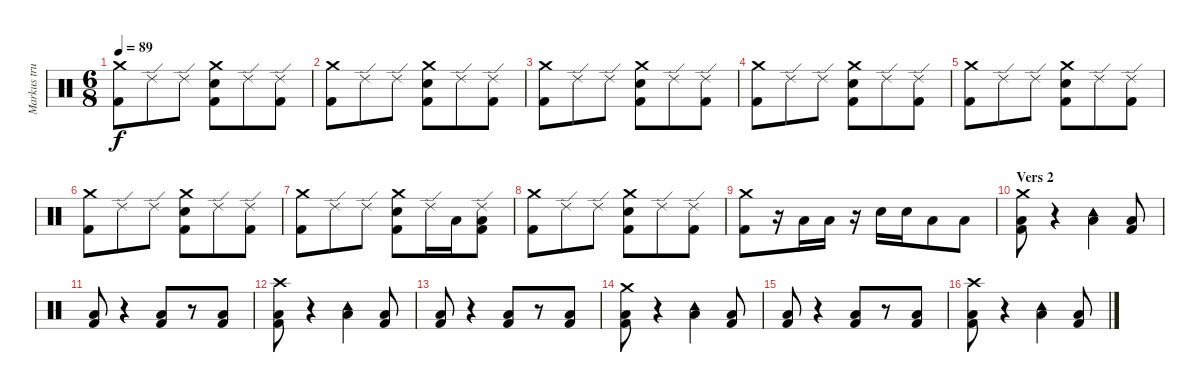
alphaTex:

\track ("Markus trummor" "Markus tru") {instrument percussion}
\staff {score}
\articulation defaults
\ts (6 8)
\tempo 89
\clef neutral
\ks c
("Crash medium (hit)" "Kick (hit) 2").8{dy f} "Ride (edge) 2".8 "Ride (edge) 2".8 ("Crash medium (hit)" "Snare (hit) 2" "Kick (hit) 2").8 "Ride (edge) 2".8 ("Ride (edge) 2" "Kick (hit) 2").8 |
("Crash medium (hit)" "Kick (hit) 2").8 "Ride (edge) 2".8 "Ride (edge) 2".8 ("Crash medium (hit)" "Snare (hit) 2" "Kick (hit) 2").8 "Ride (edge) 2".8 ("Ride (edge) 2" "Kick (hit) 2").8 |
("Crash medium (hit)" "Kick (hit) 2").8 "Ride (edge) 2".8 "Ride (edge) 2".8 ("Crash medium (hit)" "Snare (hit) 2" "Kick (hit) 2").8 "Ride (edge) 2".8 ("Ride (edge) 2" "Kick (hit) 2").8 |
("Crash medium (hit)" "Kick (hit) 2").8 "Ride (edge) 2".8 "Ride (edge) 2".8 ("Crash medium (hit)" "Snare (hit) 2" "Kick (hit) 2").8 "Ride (edge) 2".8 ("Ride (edge) 2" "Kick (hit) 2").8 |
("Crash medium (hit)" "Kick (hit) 2").8 "Ride (edge) 2".8 "Ride (edge) 2".8 ("Crash medium (hit)" "Snare (hit) 2" "Kick (hit) 2").8 "Ride (edge) 2".8 ("Ride (edge) 2" "Kick (hit) 2").8 |
("Crash medium (hit)" "Kick (hit) 2").8 "Ride (edge) 2".8 "Ride (edge) 2".8 ("Crash medium (hit)" "Snare (hit) 2" "Kick (hit) 2").8 "Ride (edge) 2".8 ("Ride (edge) 2" "Kick (hit) 2").8 |
("Crash medium (hit)" "Kick (hit) 2").8 "Ride (edge) 2".8 "Ride (edge) 2".8 ("Crash medium (hit)" "Snare (hit) 2" "Kick (hit) 2").8 "Ride (edge) 2".16 "Low Tom (hit)".16 ("Ride (edge) 2" "Low Floor Tom (hit)" "Kick (hit) 2").8 |
("Crash medium (hit)" "Kick (hit) 2").8 "Ride (edge) 2".8 "Ride (edge) 2".8 ("Crash medium (hit)" "Snare (hit) 2" "Kick (hit) 2").8 "Ride (edge) 2".8 ("Ride (edge) 2" "Kick (hit) 2").8 |
("Crash medium (hit)" "Kick (hit) 2").8 r.16 "Low Tom (hit)".16 "Low Floor Tom (hit)".16 r.16 "Snare (hit) 2".16 "Snare (hit) 2".16 "Low Tom (hit)".8 "Low Floor Tom (hit)".8 |
\section ("" "Vers 2")
("Crash medium (hit)" "Low Floor Tom (hit)" "Kick (hit) 2").8 r.4 ("Tambourine (hit)" "Low Tom (hit)").4 ("Low Tom (hit)" "Kick (hit) 2").8 |
("Low Floor Tom (hit)" "Kick (hit) 2").8 r.4 ("Low Floor Tom (hit)" "Kick (hit) 2").8 r.8 ("Low Tom (hit)" "Kick (hit) 2").8 |
("Crash high (hit)" "Low Floor Tom (hit)" "Kick (hit) 2").8 r.4 ("Tambourine (hit)" "Low Tom (hit)").4 ("Low Tom (hit)" "Kick (hit) 2").8 |
("Low Floor Tom (hit)" "Kick (hit) 2").8 r.4 ("Low Floor Tom (hit)" "Kick (hit) 2").8 r.8 ("Low Tom (hit)" "Kick (hit) 2").8 |
("Crash medium (hit)" "Low Floor Tom (hit)" "Kick (hit) 2").8 r.4 ("Tambourine (hit)" "Low Tom (hit)").4 ("Low Tom (hit)" "Kick (hit) 2").8 |
("Low Floor Tom (hit)" "Kick (hit) 2").8 r.4 ("Low Floor Tom (hit)" "Kick (hit) 2").8 r.8 ("Low Tom (hit)" "Kick (hit) 2").8 |
("Crash high (hit)" "Low Floor Tom (hit)" "Kick (hit) 2").8 r.4 ("Tambourine (hit)" "Low Tom (hit)").4 ("Low Tom (hit)" "Kick (hit) 2").8
